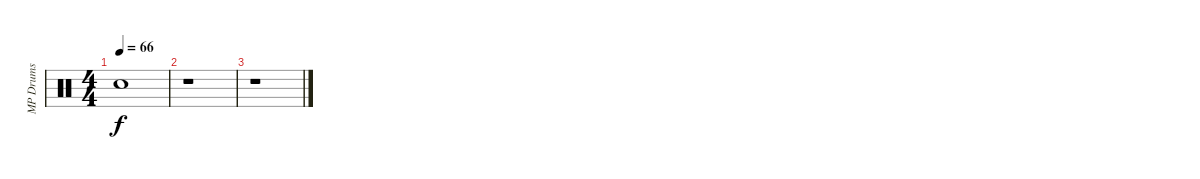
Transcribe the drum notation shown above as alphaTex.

\track ("MP Drums" "MP Drums") {instrument percussion}
\staff {score}
\articulation defaults
\ts (4 4)
\tempo 66
\clef neutral
\ks c "Snare (hit)"{t}.1{dy f}
|
r.1 |
r.1
